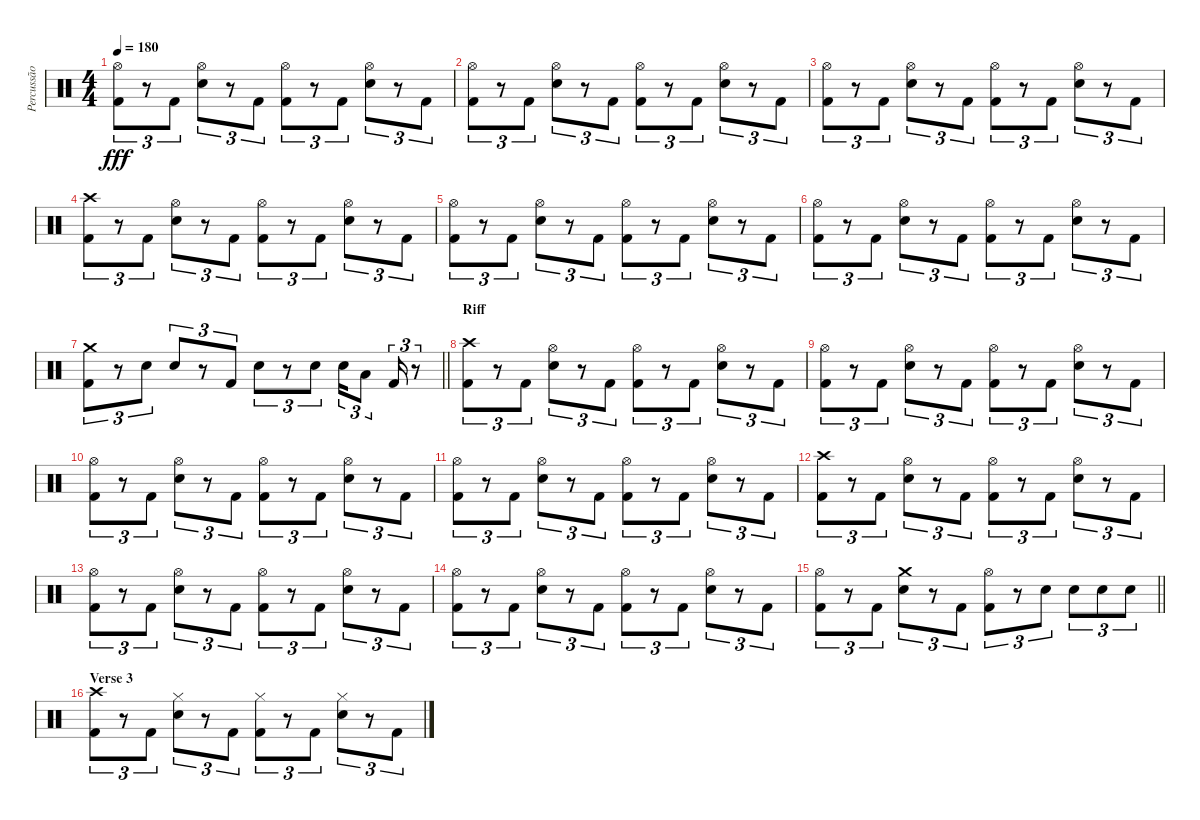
\track ("Percussão" "Percussão") {instrument percussion}
\staff {score}
\articulation defaults
\ts (4 4)
\tempo 180
\clef neutral
\ks c
("Hi-Hat (open)" "Kick (hit) 2").8{tu (3 2) dy fff} r.8{tu (3 2)} "Kick (hit) 2".8{tu (3 2)} ("Hi-Hat (open)" "Snare (hit) 2").8{tu (3 2)} r.8{tu (3 2)} "Kick (hit) 2".8{tu (3 2)} ("Hi-Hat (open)" "Kick (hit) 2").8{tu (3 2)} r.8{tu (3 2)} "Kick (hit) 2".8{tu (3 2)} ("Hi-Hat (open)" "Snare (hit) 2").8{tu (3 2)} r.8{tu (3 2)} "Kick (hit) 2".8{tu (3 2)} |
("Hi-Hat (open)" "Kick (hit) 2").8{tu (3 2)} r.8{tu (3 2)} "Kick (hit) 2".8{tu (3 2)} ("Hi-Hat (open)" "Snare (hit) 2").8{tu (3 2)} r.8{tu (3 2)} "Kick (hit) 2".8{tu (3 2)} ("Hi-Hat (open)" "Kick (hit) 2").8{tu (3 2)} r.8{tu (3 2)} "Kick (hit) 2".8{tu (3 2)} ("Hi-Hat (open)" "Snare (hit) 2").8{tu (3 2)} r.8{tu (3 2)} "Kick (hit) 2".8{tu (3 2)} |
("Hi-Hat (open)" "Kick (hit) 2").8{tu (3 2)} r.8{tu (3 2)} "Kick (hit) 2".8{tu (3 2)} ("Hi-Hat (open)" "Snare (hit) 2").8{tu (3 2)} r.8{tu (3 2)} "Kick (hit) 2".8{tu (3 2)} ("Hi-Hat (open)" "Kick (hit) 2").8{tu (3 2)} r.8{tu (3 2)} "Kick (hit) 2".8{tu (3 2)} ("Hi-Hat (open)" "Snare (hit) 2").8{tu (3 2)} r.8{tu (3 2)} "Kick (hit) 2".8{tu (3 2)} |
("Crash high (hit)" "Kick (hit) 2").8{tu (3 2)} r.8{tu (3 2)} "Kick (hit) 2".8{tu (3 2)} ("Hi-Hat (open)" "Snare (hit) 2").8{tu (3 2)} r.8{tu (3 2)} "Kick (hit) 2".8{tu (3 2)} ("Hi-Hat (open)" "Kick (hit) 2").8{tu (3 2)} r.8{tu (3 2)} "Kick (hit) 2".8{tu (3 2)} ("Hi-Hat (open)" "Snare (hit) 2").8{tu (3 2)} r.8{tu (3 2)} "Kick (hit) 2".8{tu (3 2)} |
("Hi-Hat (open)" "Kick (hit) 2").8{tu (3 2)} r.8{tu (3 2)} "Kick (hit) 2".8{tu (3 2)} ("Hi-Hat (open)" "Snare (hit) 2").8{tu (3 2)} r.8{tu (3 2)} "Kick (hit) 2".8{tu (3 2)} ("Hi-Hat (open)" "Kick (hit) 2").8{tu (3 2)} r.8{tu (3 2)} "Kick (hit) 2".8{tu (3 2)} ("Hi-Hat (open)" "Snare (hit) 2").8{tu (3 2)} r.8{tu (3 2)} "Kick (hit) 2".8{tu (3 2)} |
("Hi-Hat (open)" "Kick (hit) 2").8{tu (3 2)} r.8{tu (3 2)} "Kick (hit) 2".8{tu (3 2)} ("Hi-Hat (open)" "Snare (hit) 2").8{tu (3 2)} r.8{tu (3 2)} "Kick (hit) 2".8{tu (3 2)} ("Hi-Hat (open)" "Kick (hit) 2").8{tu (3 2)} r.8{tu (3 2)} "Kick (hit) 2".8{tu (3 2)} ("Hi-Hat (open)" "Snare (hit) 2").8{tu (3 2)} r.8{tu (3 2)} "Kick (hit) 2".8{tu (3 2)} |
\barLineRight lightlight
("Crash medium (hit)" "Kick (hit) 2").8{tu (3 2)} r.8{tu (3 2)} "Snare (hit) 2".8{tu (3 2)} "Snare (hit) 2".8{tu (3 2)} r.8{tu (3 2)} "Kick (hit) 2".8{tu (3 2)} "Snare (hit) 2".8{tu (3 2)} r.8{tu (3 2)} "Snare (hit) 2".8{tu (3 2)} "Snare (hit) 2".16{tu (3 2)} "Low Floor Tom (hit)".8{tu (3 2)} "Kick (hit) 2".16{tu (3 2)} r.8{tu (3 2)} |
\section ("" "Riff")
("Crash high (hit)" "Kick (hit) 2").8{tu (3 2)} r.8{tu (3 2)} "Kick (hit) 2".8{tu (3 2)} ("Hi-Hat (open)" "Snare (hit) 2").8{tu (3 2)} r.8{tu (3 2)} "Kick (hit) 2".8{tu (3 2)} ("Hi-Hat (open)" "Kick (hit) 2").8{tu (3 2)} r.8{tu (3 2)} "Kick (hit) 2".8{tu (3 2)} ("Hi-Hat (open)" "Snare (hit) 2").8{tu (3 2)} r.8{tu (3 2)} "Kick (hit) 2".8{tu (3 2)} |
("Hi-Hat (open)" "Kick (hit) 2").8{tu (3 2)} r.8{tu (3 2)} "Kick (hit) 2".8{tu (3 2)} ("Hi-Hat (open)" "Snare (hit) 2").8{tu (3 2)} r.8{tu (3 2)} "Kick (hit) 2".8{tu (3 2)} ("Hi-Hat (open)" "Kick (hit) 2").8{tu (3 2)} r.8{tu (3 2)} "Kick (hit) 2".8{tu (3 2)} ("Hi-Hat (open)" "Snare (hit) 2").8{tu (3 2)} r.8{tu (3 2)} "Kick (hit) 2".8{tu (3 2)} |
("Hi-Hat (open)" "Kick (hit) 2").8{tu (3 2)} r.8{tu (3 2)} "Kick (hit) 2".8{tu (3 2)} ("Hi-Hat (open)" "Snare (hit) 2").8{tu (3 2)} r.8{tu (3 2)} "Kick (hit) 2".8{tu (3 2)} ("Hi-Hat (open)" "Kick (hit) 2").8{tu (3 2)} r.8{tu (3 2)} "Kick (hit) 2".8{tu (3 2)} ("Hi-Hat (open)" "Snare (hit) 2").8{tu (3 2)} r.8{tu (3 2)} "Kick (hit) 2".8{tu (3 2)} |
("Hi-Hat (open)" "Kick (hit) 2").8{tu (3 2)} r.8{tu (3 2)} "Kick (hit) 2".8{tu (3 2)} ("Hi-Hat (open)" "Snare (hit) 2").8{tu (3 2)} r.8{tu (3 2)} "Kick (hit) 2".8{tu (3 2)} ("Hi-Hat (open)" "Kick (hit) 2").8{tu (3 2)} r.8{tu (3 2)} "Kick (hit) 2".8{tu (3 2)} ("Hi-Hat (open)" "Snare (hit) 2").8{tu (3 2)} r.8{tu (3 2)} "Kick (hit) 2".8{tu (3 2)} |
("Crash high (hit)" "Kick (hit) 2").8{tu (3 2)} r.8{tu (3 2)} "Kick (hit) 2".8{tu (3 2)} ("Hi-Hat (open)" "Snare (hit) 2").8{tu (3 2)} r.8{tu (3 2)} "Kick (hit) 2".8{tu (3 2)} ("Hi-Hat (open)" "Kick (hit) 2").8{tu (3 2)} r.8{tu (3 2)} "Kick (hit) 2".8{tu (3 2)} ("Hi-Hat (open)" "Snare (hit) 2").8{tu (3 2)} r.8{tu (3 2)} "Kick (hit) 2".8{tu (3 2)} |
("Hi-Hat (open)" "Kick (hit) 2").8{tu (3 2)} r.8{tu (3 2)} "Kick (hit) 2".8{tu (3 2)} ("Hi-Hat (open)" "Snare (hit) 2").8{tu (3 2)} r.8{tu (3 2)} "Kick (hit) 2".8{tu (3 2)} ("Hi-Hat (open)" "Kick (hit) 2").8{tu (3 2)} r.8{tu (3 2)} "Kick (hit) 2".8{tu (3 2)} ("Hi-Hat (open)" "Snare (hit) 2").8{tu (3 2)} r.8{tu (3 2)} "Kick (hit) 2".8{tu (3 2)} |
("Hi-Hat (open)" "Kick (hit) 2").8{tu (3 2)} r.8{tu (3 2)} "Kick (hit) 2".8{tu (3 2)} ("Hi-Hat (open)" "Snare (hit) 2").8{tu (3 2)} r.8{tu (3 2)} "Kick (hit) 2".8{tu (3 2)} ("Hi-Hat (open)" "Kick (hit) 2").8{tu (3 2)} r.8{tu (3 2)} "Kick (hit) 2".8{tu (3 2)} ("Hi-Hat (open)" "Snare (hit) 2").8{tu (3 2)} r.8{tu (3 2)} "Kick (hit) 2".8{tu (3 2)} |
\barLineRight lightlight
("Hi-Hat (open)" "Kick (hit) 2").8{tu (3 2)} r.8{tu (3 2)} "Kick (hit) 2".8{tu (3 2)} ("Crash medium (hit)" "Snare (hit) 2").8{tu (3 2)} r.8{tu (3 2)} "Kick (hit) 2".8{tu (3 2)} ("Hi-Hat (open)" "Kick (hit) 2").8{tu (3 2)} r.8{tu (3 2)} "Snare (hit) 2".8{tu (3 2)} "Snare (hit) 2".8{tu (3 2)} "Snare (hit) 2".8{tu (3 2)} "Snare (hit) 2".8{tu (3 2)} |
\section ("" "Verse 3")
("Crash high (hit)" "Kick (hit) 2").8{tu (3 2)} r.8{tu (3 2)} "Kick (hit) 2".8{tu (3 2)} ("Hi-Hat (closed)" "Snare (hit) 2").8{tu (3 2)} r.8{tu (3 2)} "Kick (hit) 2".8{tu (3 2)} ("Hi-Hat (closed)" "Kick (hit) 2").8{tu (3 2)} r.8{tu (3 2)} "Kick (hit) 2".8{tu (3 2)} ("Hi-Hat (closed)" "Snare (hit) 2").8{tu (3 2)} r.8{tu (3 2)} "Kick (hit) 2".8{tu (3 2)}
